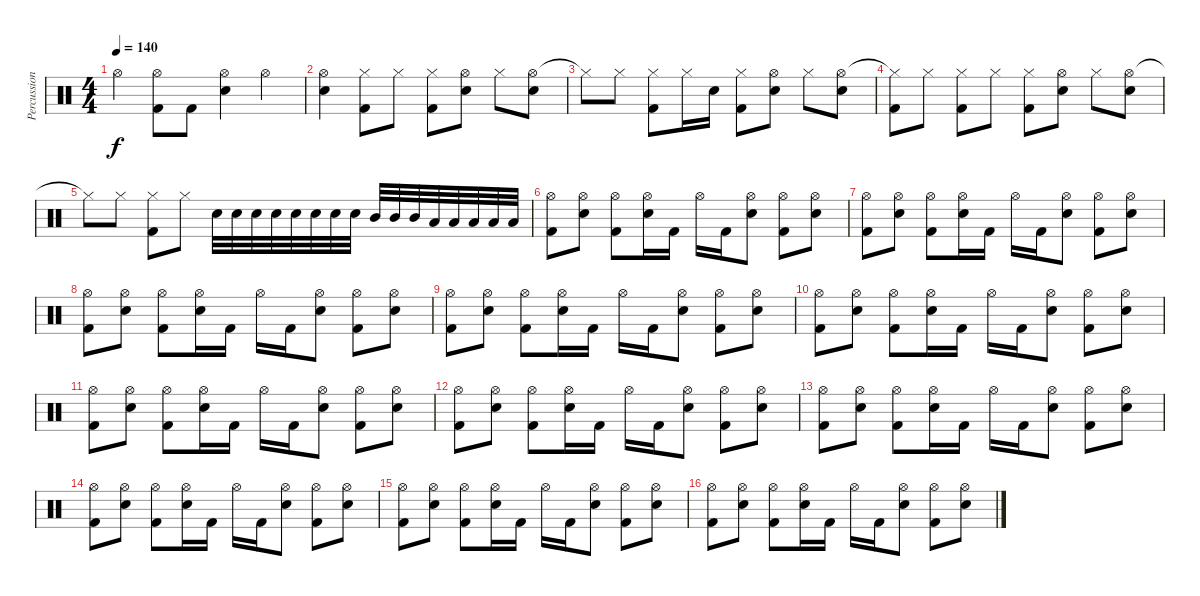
\track ("Percussion" "Percussion") {instrument percussion}
\staff {score}
\articulation defaults
\ts (4 4)
\tempo 140
\clef neutral
\ks c "Hi-Hat (open)".4{dy f}
("Hi-Hat (open)" "Kick (hit) 2").8 "Kick (hit) 2".8 ("Hi-Hat (open)" "Electric Snare (hit)").4 "Hi-Hat (open)".4 |
("Hi-Hat (open)" "Electric Snare (hit)").4 ("Hi-Hat (closed)" "Kick (hit) 2").8 "Hi-Hat (closed)".8 ("Hi-Hat (closed)" "Kick (hit) 2").8 ("Hi-Hat (open)" "Electric Snare (hit)").8 "Hi-Hat (closed)".8 ("Hi-Hat (open)" "Electric Snare (hit)").8 |
"Hi-Hat (closed)"{t}.8 "Hi-Hat (closed)".8 ("Hi-Hat (closed)" "Kick (hit) 2").8 "Hi-Hat (closed)".16 "Electric Snare (hit)".16 ("Hi-Hat (closed)" "Kick (hit) 2").8 ("Hi-Hat (open)" "Electric Snare (hit)").8 "Hi-Hat (closed)".8 ("Hi-Hat (open)" "Electric Snare (hit)").8 |
("Hi-Hat (closed)"{t} "Kick (hit) 2").8 "Hi-Hat (closed)".8 ("Hi-Hat (closed)" "Kick (hit) 2").8 "Hi-Hat (closed)".8 ("Hi-Hat (closed)" "Kick (hit) 2").8 ("Hi-Hat (open)" "Electric Snare (hit)").8 "Hi-Hat (closed)".8 ("Hi-Hat (open)" "Electric Snare (hit)").8 |
"Hi-Hat (closed)"{t}.8 "Hi-Hat (closed)".8 ("Hi-Hat (closed)" "Kick (hit) 2").8 "Hi-Hat (closed)".8 "Electric Snare (hit)".32 "Electric Snare (hit)".32 "Electric Snare (hit)".32 "Electric Snare (hit)".32 "Electric Snare (hit)".32 "Electric Snare (hit)".32 "Electric Snare (hit)".32 "Electric Snare (hit)".32 "Mid Tom (hit)".32 "Mid Tom (hit)".32 "Mid Tom (hit)".32 "Low Tom (hit)".32 "Low Tom (hit)".32 "Low Tom (hit)".32 "Low Floor Tom (hit)".32 "Low Floor Tom (hit)".32 |
("Hi-Hat (open)" "Kick (hit) 2").8 ("Hi-Hat (open)" "Electric Snare (hit)").8 ("Hi-Hat (open)" "Kick (hit) 2").8 ("Hi-Hat (open)" "Electric Snare (hit)").16 "Kick (hit) 2".16 "Hi-Hat (open)".16 "Kick (hit) 2".16 ("Hi-Hat (open)" "Electric Snare (hit)").8 ("Hi-Hat (open)" "Kick (hit) 2").8 ("Hi-Hat (open)" "Electric Snare (hit)").8 |
("Hi-Hat (open)" "Kick (hit) 2").8 ("Hi-Hat (open)" "Electric Snare (hit)").8 ("Hi-Hat (open)" "Kick (hit) 2").8 ("Hi-Hat (open)" "Electric Snare (hit)").16 "Kick (hit) 2".16 "Hi-Hat (open)".16 "Kick (hit) 2".16 ("Hi-Hat (open)" "Electric Snare (hit)").8 ("Hi-Hat (open)" "Kick (hit) 2").8 ("Hi-Hat (open)" "Electric Snare (hit)").8 |
("Hi-Hat (open)" "Kick (hit) 2").8 ("Hi-Hat (open)" "Electric Snare (hit)").8 ("Hi-Hat (open)" "Kick (hit) 2").8 ("Hi-Hat (open)" "Electric Snare (hit)").16 "Kick (hit) 2".16 "Hi-Hat (open)".16 "Kick (hit) 2".16 ("Hi-Hat (open)" "Electric Snare (hit)").8 ("Hi-Hat (open)" "Kick (hit) 2").8 ("Hi-Hat (open)" "Electric Snare (hit)").8 |
("Hi-Hat (open)" "Kick (hit) 2").8 ("Hi-Hat (open)" "Electric Snare (hit)").8 ("Hi-Hat (open)" "Kick (hit) 2").8 ("Hi-Hat (open)" "Electric Snare (hit)").16 "Kick (hit) 2".16 "Hi-Hat (open)".16 "Kick (hit) 2".16 ("Hi-Hat (open)" "Electric Snare (hit)").8 ("Hi-Hat (open)" "Kick (hit) 2").8 ("Hi-Hat (open)" "Electric Snare (hit)").8 |
("Hi-Hat (open)" "Kick (hit) 2").8 ("Hi-Hat (open)" "Electric Snare (hit)").8 ("Hi-Hat (open)" "Kick (hit) 2").8 ("Hi-Hat (open)" "Electric Snare (hit)").16 "Kick (hit) 2".16 "Hi-Hat (open)".16 "Kick (hit) 2".16 ("Hi-Hat (open)" "Electric Snare (hit)").8 ("Hi-Hat (open)" "Kick (hit) 2").8 ("Hi-Hat (open)" "Electric Snare (hit)").8 |
("Hi-Hat (open)" "Kick (hit) 2").8 ("Hi-Hat (open)" "Electric Snare (hit)").8 ("Hi-Hat (open)" "Kick (hit) 2").8 ("Hi-Hat (open)" "Electric Snare (hit)").16 "Kick (hit) 2".16 "Hi-Hat (open)".16 "Kick (hit) 2".16 ("Hi-Hat (open)" "Electric Snare (hit)").8 ("Hi-Hat (open)" "Kick (hit) 2").8 ("Hi-Hat (open)" "Electric Snare (hit)").8 |
("Hi-Hat (open)" "Kick (hit) 2").8 ("Hi-Hat (open)" "Electric Snare (hit)").8 ("Hi-Hat (open)" "Kick (hit) 2").8 ("Hi-Hat (open)" "Electric Snare (hit)").16 "Kick (hit) 2".16 "Hi-Hat (open)".16 "Kick (hit) 2".16 ("Hi-Hat (open)" "Electric Snare (hit)").8 ("Hi-Hat (open)" "Kick (hit) 2").8 ("Hi-Hat (open)" "Electric Snare (hit)").8 |
("Hi-Hat (open)" "Kick (hit) 2").8 ("Hi-Hat (open)" "Electric Snare (hit)").8 ("Hi-Hat (open)" "Kick (hit) 2").8 ("Hi-Hat (open)" "Electric Snare (hit)").16 "Kick (hit) 2".16 "Hi-Hat (open)".16 "Kick (hit) 2".16 ("Hi-Hat (open)" "Electric Snare (hit)").8 ("Hi-Hat (open)" "Kick (hit) 2").8 ("Hi-Hat (open)" "Electric Snare (hit)").8 |
("Hi-Hat (open)" "Kick (hit) 2").8 ("Hi-Hat (open)" "Electric Snare (hit)").8 ("Hi-Hat (open)" "Kick (hit) 2").8 ("Hi-Hat (open)" "Electric Snare (hit)").16 "Kick (hit) 2".16 "Hi-Hat (open)".16 "Kick (hit) 2".16 ("Hi-Hat (open)" "Electric Snare (hit)").8 ("Hi-Hat (open)" "Kick (hit) 2").8 ("Hi-Hat (open)" "Electric Snare (hit)").8 |
("Hi-Hat (open)" "Kick (hit) 2").8 ("Hi-Hat (open)" "Electric Snare (hit)").8 ("Hi-Hat (open)" "Kick (hit) 2").8 ("Hi-Hat (open)" "Electric Snare (hit)").16 "Kick (hit) 2".16 "Hi-Hat (open)".16 "Kick (hit) 2".16 ("Hi-Hat (open)" "Electric Snare (hit)").8 ("Hi-Hat (open)" "Kick (hit) 2").8 ("Hi-Hat (open)" "Electric Snare (hit)").8 |
("Hi-Hat (open)" "Kick (hit) 2").8 ("Hi-Hat (open)" "Electric Snare (hit)").8 ("Hi-Hat (open)" "Kick (hit) 2").8 ("Hi-Hat (open)" "Electric Snare (hit)").16 "Kick (hit) 2".16 "Hi-Hat (open)".16 "Kick (hit) 2".16 ("Hi-Hat (open)" "Electric Snare (hit)").8 ("Hi-Hat (open)" "Kick (hit) 2").8 ("Hi-Hat (open)" "Electric Snare (hit)").8
